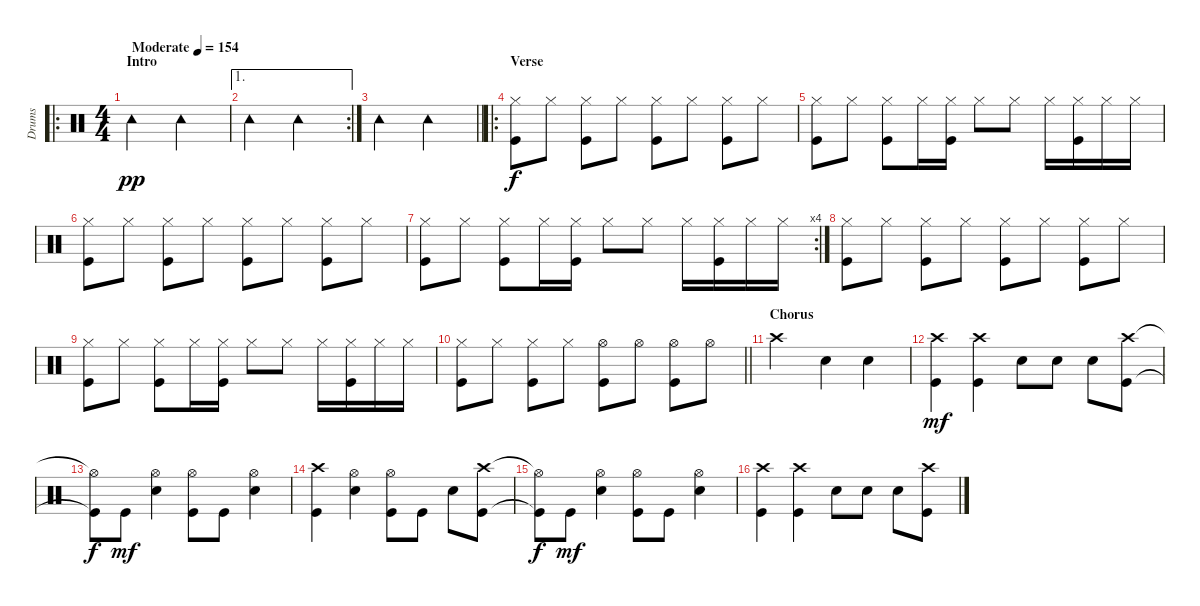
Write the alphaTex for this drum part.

\track ("Drums" "Drums") {instrument percussion}
\staff {score}
\articulation defaults
\ro
\ts (4 4)
\section ("" "Intro")
\tempo (154 "Moderate")
\clef neutral
\ks c "Tambourine (hit)".2{dy pp} "Tambourine (hit)".2
|
\ae 1
\rc 2 "Tambourine (hit)".2 "Tambourine (hit)".2
|
\barLineRight lightlight "Tambourine (hit)".2 "Tambourine (hit)".2
|
\ro
\section ("" "Verse")
("Hi-Hat (closed)" "Kick (hit)").8{dy f} "Hi-Hat (closed)".8 ("Hi-Hat (closed)" "Kick (hit)").8 "Hi-Hat (closed)".8 ("Hi-Hat (closed)" "Kick (hit)").8 "Hi-Hat (closed)".8 ("Hi-Hat (closed)" "Kick (hit)").8 "Hi-Hat (closed)".8 |
("Hi-Hat (closed)" "Kick (hit)").8 "Hi-Hat (closed)".8 ("Hi-Hat (closed)" "Kick (hit)").8 "Hi-Hat (closed)".16 ("Hi-Hat (closed)" "Kick (hit)").16 "Hi-Hat (closed)".8 "Hi-Hat (closed)".8 "Hi-Hat (closed)".16 ("Hi-Hat (closed)" "Kick (hit)").16 "Hi-Hat (closed)".16 "Hi-Hat (closed)".16 |
("Hi-Hat (closed)" "Kick (hit)").8 "Hi-Hat (closed)".8 ("Hi-Hat (closed)" "Kick (hit)").8 "Hi-Hat (closed)".8 ("Hi-Hat (closed)" "Kick (hit)").8 "Hi-Hat (closed)".8 ("Hi-Hat (closed)" "Kick (hit)").8 "Hi-Hat (closed)".8 |
\rc 4
("Hi-Hat (closed)" "Kick (hit)").8 "Hi-Hat (closed)".8 ("Hi-Hat (closed)" "Kick (hit)").8 "Hi-Hat (closed)".16 ("Hi-Hat (closed)" "Kick (hit)").16 "Hi-Hat (closed)".8 "Hi-Hat (closed)".8 "Hi-Hat (closed)".16 ("Hi-Hat (closed)" "Kick (hit)").16 "Hi-Hat (closed)".16 "Hi-Hat (closed)".16 |
("Hi-Hat (closed)" "Kick (hit)").8 "Hi-Hat (closed)".8 ("Hi-Hat (closed)" "Kick (hit)").8 "Hi-Hat (closed)".8 ("Hi-Hat (closed)" "Kick (hit)").8 "Hi-Hat (closed)".8 ("Hi-Hat (closed)" "Kick (hit)").8 "Hi-Hat (closed)".8 |
("Hi-Hat (closed)" "Kick (hit)").8 "Hi-Hat (closed)".8 ("Hi-Hat (closed)" "Kick (hit)").8 "Hi-Hat (closed)".16 ("Hi-Hat (closed)" "Kick (hit)").16 "Hi-Hat (closed)".8 "Hi-Hat (closed)".8 "Hi-Hat (closed)".16 ("Hi-Hat (closed)" "Kick (hit)").16 "Hi-Hat (closed)".16 "Hi-Hat (closed)".16 |
\barLineRight lightlight
("Hi-Hat (closed)" "Kick (hit)").8 "Hi-Hat (closed)".8 ("Hi-Hat (closed)" "Kick (hit)").8 "Hi-Hat (closed)".8 ("Hi-Hat (open)" "Kick (hit)").8 "Hi-Hat (open)".8 ("Hi-Hat (open)" "Kick (hit)").8 "Hi-Hat (open)".8 |
\section ("" "Chorus")
"Crash high (hit)".2 "Electric Snare (hit)".4 "Electric Snare (hit)".4 |
("Crash high (hit)" "Kick (hit)").4{dy mf} ("Crash high (hit)" "Kick (hit)").4 "Electric Snare (hit)".8 "Electric Snare (hit)".8 "Electric Snare (hit)".8 ("Crash high (hit)" "Kick (hit)").8 |
("Hi-Hat (open)"{t} "Kick (hit)"{t}).8{dy f} "Kick (hit)".8{dy mf} ("Hi-Hat (open)" "Electric Snare (hit)").4 ("Hi-Hat (open)" "Kick (hit)").8 "Kick (hit)".8 ("Hi-Hat (open)" "Electric Snare (hit)").4 |
("Crash high (hit)" "Kick (hit)").4 ("Hi-Hat (open)" "Electric Snare (hit)").4 ("Hi-Hat (open)" "Kick (hit)").8 "Kick (hit)".8 "Electric Snare (hit)".8 ("Crash high (hit)" "Kick (hit)").8 |
("Hi-Hat (open)"{t} "Kick (hit)"{t}).8{dy f} "Kick (hit)".8{dy mf} ("Hi-Hat (open)" "Electric Snare (hit)").4 ("Hi-Hat (open)" "Kick (hit)").8 "Kick (hit)".8 ("Hi-Hat (open)" "Electric Snare (hit)").4 |
("Crash high (hit)" "Kick (hit)").4 ("Crash high (hit)" "Kick (hit)").4 "Electric Snare (hit)".8 "Electric Snare (hit)".8 "Electric Snare (hit)".8 ("Crash high (hit)" "Kick (hit)").8
